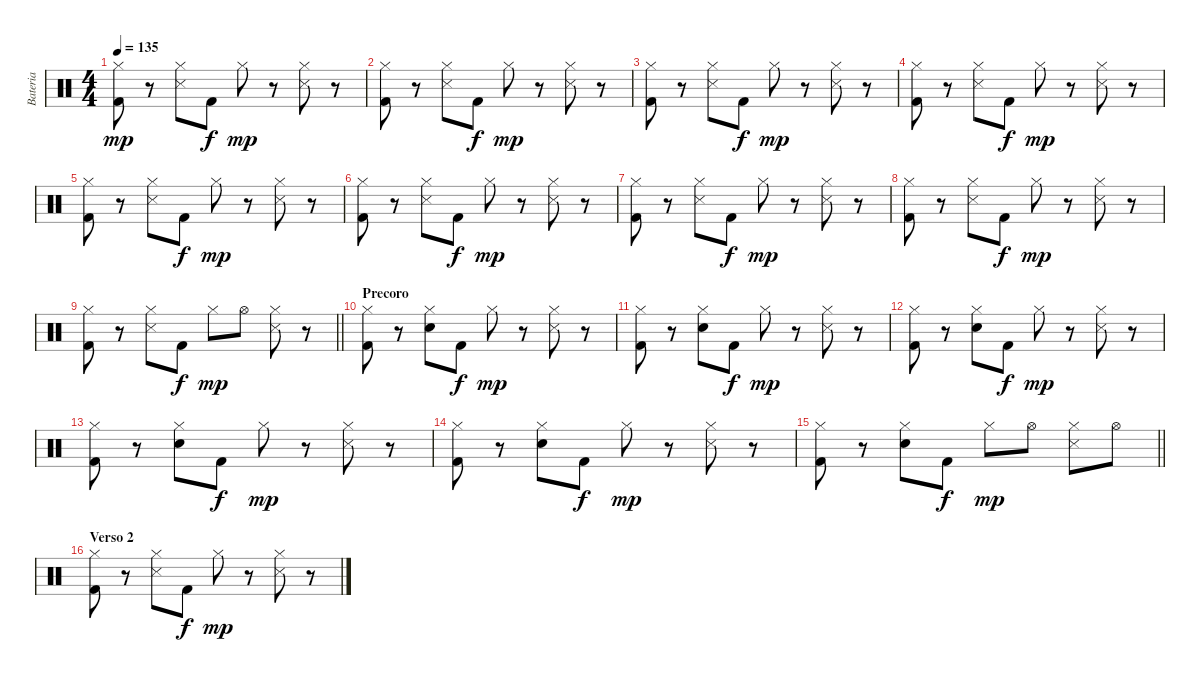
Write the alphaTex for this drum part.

\track ("Bateria" "Bateria") {instrument percussion}
\staff {score}
\articulation defaults
\ts (4 4)
\tempo 135
\clef neutral
\ks c
("Hi-Hat (closed)" "Kick (hit) 2").8{dy mp} r.8 ("Hi-Hat (closed)" "Snare (side stick) 3").8 "Kick (hit) 2".8{dy f} "Hi-Hat (closed)".8{dy mp} r.8 ("Hi-Hat (closed)" "Snare (side stick) 3").8 r.8 |
("Hi-Hat (closed)" "Kick (hit) 2").8 r.8 ("Hi-Hat (closed)" "Snare (side stick) 3").8 "Kick (hit) 2".8{dy f} "Hi-Hat (closed)".8{dy mp} r.8 ("Hi-Hat (closed)" "Snare (side stick) 3").8 r.8 |
("Hi-Hat (closed)" "Kick (hit) 2").8 r.8 ("Hi-Hat (closed)" "Snare (side stick) 3").8 "Kick (hit) 2".8{dy f} "Hi-Hat (closed)".8{dy mp} r.8 ("Hi-Hat (closed)" "Snare (side stick) 3").8 r.8 |
("Hi-Hat (closed)" "Kick (hit) 2").8 r.8 ("Hi-Hat (closed)" "Snare (side stick) 3").8 "Kick (hit) 2".8{dy f} "Hi-Hat (closed)".8{dy mp} r.8 ("Hi-Hat (closed)" "Snare (side stick) 3").8 r.8 |
("Hi-Hat (closed)" "Kick (hit) 2").8 r.8 ("Hi-Hat (closed)" "Snare (side stick) 3").8 "Kick (hit) 2".8{dy f} "Hi-Hat (closed)".8{dy mp} r.8 ("Hi-Hat (closed)" "Snare (side stick) 3").8 r.8 |
("Hi-Hat (closed)" "Kick (hit) 2").8 r.8 ("Hi-Hat (closed)" "Snare (side stick) 3").8 "Kick (hit) 2".8{dy f} "Hi-Hat (closed)".8{dy mp} r.8 ("Hi-Hat (closed)" "Snare (side stick) 3").8 r.8 |
("Hi-Hat (closed)" "Kick (hit) 2").8 r.8 ("Hi-Hat (closed)" "Snare (side stick) 3").8 "Kick (hit) 2".8{dy f} "Hi-Hat (closed)".8{dy mp} r.8 ("Hi-Hat (closed)" "Snare (side stick) 3").8 r.8 |
("Hi-Hat (closed)" "Kick (hit) 2").8 r.8 ("Hi-Hat (closed)" "Snare (side stick) 3").8 "Kick (hit) 2".8{dy f} "Hi-Hat (closed)".8{dy mp} r.8 ("Hi-Hat (closed)" "Snare (side stick) 3").8 r.8 |
\barLineRight lightlight
("Hi-Hat (closed)" "Kick (hit) 2").8 r.8 ("Hi-Hat (closed)" "Snare (side stick) 3").8 "Kick (hit) 2".8{dy f} "Hi-Hat (closed)".8{dy mp} "Hi-Hat (open)".8 ("Hi-Hat (closed)" "Snare (side stick) 3").8 r.8 |
\section ("" "Precoro")
("Hi-Hat (closed)" "Kick (hit) 2").8 r.8 ("Hi-Hat (closed)" "Snare (hit) 2").8 "Kick (hit) 2".8{dy f} "Hi-Hat (closed)".8{dy mp} r.8 ("Hi-Hat (closed)" "Snare (side stick) 3").8 r.8 |
("Hi-Hat (closed)" "Kick (hit) 2").8 r.8 ("Hi-Hat (closed)" "Snare (hit) 2").8 "Kick (hit) 2".8{dy f} "Hi-Hat (closed)".8{dy mp} r.8 ("Hi-Hat (closed)" "Snare (side stick) 3").8 r.8 |
("Hi-Hat (closed)" "Kick (hit) 2").8 r.8 ("Hi-Hat (closed)" "Snare (hit) 2").8 "Kick (hit) 2".8{dy f} "Hi-Hat (closed)".8{dy mp} r.8 ("Hi-Hat (closed)" "Snare (side stick) 3").8 r.8 |
("Hi-Hat (closed)" "Kick (hit) 2").8 r.8 ("Hi-Hat (closed)" "Snare (hit) 2").8 "Kick (hit) 2".8{dy f} "Hi-Hat (closed)".8{dy mp} r.8 ("Hi-Hat (closed)" "Snare (side stick) 3").8 r.8 |
("Hi-Hat (closed)" "Kick (hit) 2").8 r.8 ("Hi-Hat (closed)" "Snare (hit) 2").8 "Kick (hit) 2".8{dy f} "Hi-Hat (closed)".8{dy mp} r.8 ("Hi-Hat (closed)" "Snare (side stick) 3").8 r.8 |
\barLineRight lightlight
("Hi-Hat (closed)" "Kick (hit) 2").8 r.8 ("Hi-Hat (closed)" "Snare (hit) 2").8 "Kick (hit) 2".8{dy f} "Hi-Hat (closed)".8{dy mp} "Hi-Hat (open)".8 ("Hi-Hat (closed)" "Snare (side stick) 3").8 "Hi-Hat (open)".8 |
\section ("" "Verso 2")
("Hi-Hat (closed)" "Kick (hit) 2").8 r.8 ("Hi-Hat (closed)" "Snare (side stick) 3").8 "Kick (hit) 2".8{dy f} "Hi-Hat (closed)".8{dy mp} r.8 ("Hi-Hat (closed)" "Snare (side stick) 3").8 r.8
